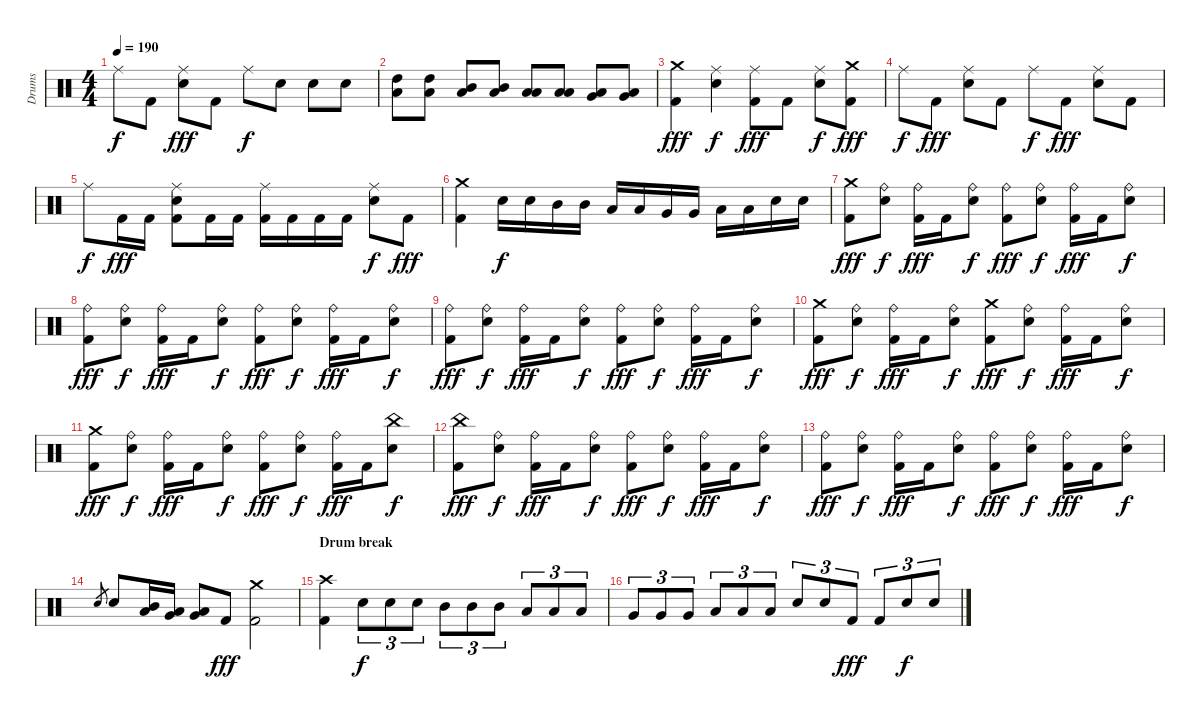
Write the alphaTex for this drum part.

\track ("Drums" "Drums") {instrument percussion}
\staff {score}
\articulation defaults
\ts (4 4)
\tempo 190
\clef neutral
\ks c "Ride (middle)".8{dy f} "Kick (hit) 2".8
("Ride (middle)" "Snare (hit) 2").8{dy fff} "Kick (hit) 2".8 "Ride (middle)".8{dy f} "Snare (hit) 2".8 "Snare (hit) 2".8 "Snare (hit) 2".8 |
("High Tom (hit)" "Low Floor Tom (hit)").8 ("High Tom (hit)" "Low Floor Tom (hit)").8 ("Mid Tom (hit)" "Low Floor Tom (hit)").8 ("Mid Tom (hit)" "Low Floor Tom (hit)").8 ("Low Tom (hit)" "Low Floor Tom (hit)").8 ("Low Tom (hit)" "Low Floor Tom (hit)").8 ("Very Low Tom (hit)" "Low Floor Tom (hit)").8 ("Very Low Tom (hit)" "Low Floor Tom (hit)").8 |
("Crash medium (hit)" "Kick (hit) 2").4{dy fff} ("Ride (middle)" "Snare (hit) 2").4{dy f} ("Ride (middle)" "Kick (hit) 2").8{dy fff} "Kick (hit) 2".8 ("Ride (middle)" "Snare (hit) 2").8{dy f} ("Crash medium (hit)" "Kick (hit) 2").8{dy fff} |
"Ride (middle)".8{dy f} "Kick (hit) 2".8{dy fff} ("Ride (middle)" "Snare (hit) 2").8 "Kick (hit) 2".8 "Ride (middle)".8{dy f} "Kick (hit) 2".8{dy fff} ("Ride (middle)" "Snare (hit) 2").8 "Kick (hit) 2".8 |
"Ride (middle)".8{dy f} "Kick (hit) 2".16{dy fff} "Kick (hit) 2".16 ("Ride (middle)" "Snare (hit) 2" "Kick (hit) 2").8 "Kick (hit) 2".16 "Kick (hit) 2".16 ("Ride (middle)" "Kick (hit) 2").16 "Kick (hit) 2".16 "Kick (hit) 2".16 "Kick (hit) 2".16 ("Ride (middle)" "Snare (hit) 2").8{dy f} "Kick (hit) 2".8{dy fff} |
("Crash medium (hit)" "Kick (hit) 2").4 "Snare (hit) 2".16{dy f} "Snare (hit) 2".16 "Mid Tom (hit)".16 "Mid Tom (hit)".16 "Low Tom (hit)".16 "Low Tom (hit)".16 "Very Low Tom (hit)".16 "Very Low Tom (hit)".16 "Low Floor Tom (hit)".16 "Low Floor Tom (hit)".16 "Snare (hit) 2".16 "Snare (hit) 2".16 |
("Crash medium (hit)" "Kick (hit) 2").8{dy fff} ("Ride (bell)" "Snare (hit) 2").8{dy f} ("Ride (bell)" "Kick (hit) 2").16{dy fff} "Kick (hit) 2".16 ("Ride (bell)" "Snare (hit) 2").8{dy f} ("Ride (bell)" "Kick (hit) 2").8{dy fff} ("Ride (bell)" "Snare (hit) 2").8{dy f} ("Ride (bell)" "Kick (hit) 2").16{dy fff} "Kick (hit) 2".16 ("Ride (bell)" "Snare (hit) 2").8{dy f} |
("Ride (bell)" "Kick (hit) 2").8{dy fff} ("Ride (bell)" "Snare (hit) 2").8{dy f} ("Ride (bell)" "Kick (hit) 2").16{dy fff} "Kick (hit) 2".16 ("Ride (bell)" "Snare (hit) 2").8{dy f} ("Ride (bell)" "Kick (hit) 2").8{dy fff} ("Ride (bell)" "Snare (hit) 2").8{dy f} ("Ride (bell)" "Kick (hit) 2").16{dy fff} "Kick (hit) 2".16 ("Ride (bell)" "Snare (hit) 2").8{dy f} |
("Ride (bell)" "Kick (hit) 2").8{dy fff} ("Ride (bell)" "Snare (hit) 2").8{dy f} ("Ride (bell)" "Kick (hit) 2").16{dy fff} "Kick (hit) 2".16 ("Ride (bell)" "Snare (hit) 2").8{dy f} ("Ride (bell)" "Kick (hit) 2").8{dy fff} ("Ride (bell)" "Snare (hit) 2").8{dy f} ("Ride (bell)" "Kick (hit) 2").16{dy fff} "Kick (hit) 2".16 ("Ride (bell)" "Snare (hit) 2").8{dy f} |
("Crash medium (hit)" "Kick (hit) 2").8{dy fff} ("Ride (bell)" "Snare (hit) 2").8{dy f} ("Ride (bell)" "Kick (hit) 2").16{dy fff} "Kick (hit) 2".16 ("Ride (bell)" "Snare (hit) 2").8{dy f} ("Crash medium (hit)" "Kick (hit) 2").8{dy fff} ("Ride (bell)" "Snare (hit) 2").8{dy f} ("Ride (bell)" "Kick (hit) 2").16{dy fff} "Kick (hit) 2".16 ("Ride (bell)" "Snare (hit) 2").8{dy f} |
("Crash medium (hit)" "Kick (hit) 2").8{dy fff} ("Ride (bell)" "Snare (hit) 2").8{dy f} ("Ride (bell)" "Kick (hit) 2").16{dy fff} "Kick (hit) 2".16 ("Ride (bell)" "Snare (hit) 2").8{dy f} ("Ride (bell)" "Kick (hit) 2").8{dy fff} ("Ride (bell)" "Snare (hit) 2").8{dy f} ("Ride (bell)" "Kick (hit) 2").16{dy fff} "Kick (hit) 2".16 ("China (hit)" "Snare (hit) 2").8{dy f} |
("China (hit)" "Kick (hit) 2").8{dy fff} ("Ride (bell)" "Snare (hit) 2").8{dy f} ("Ride (bell)" "Kick (hit) 2").16{dy fff} "Kick (hit) 2".16 ("Ride (bell)" "Snare (hit) 2").8{dy f} ("Ride (bell)" "Kick (hit) 2").8{dy fff} ("Ride (bell)" "Snare (hit) 2").8{dy f} ("Ride (bell)" "Kick (hit) 2").16{dy fff} "Kick (hit) 2".16 ("Ride (bell)" "Snare (hit) 2").8{dy f} |
("Ride (bell)" "Kick (hit) 2").8{dy fff} ("Ride (bell)" "Snare (hit) 2").8{dy f} ("Ride (bell)" "Kick (hit) 2").16{dy fff} "Kick (hit) 2".16 ("Ride (bell)" "Snare (hit) 2").8{dy f} ("Ride (bell)" "Kick (hit) 2").8{dy fff} ("Ride (bell)" "Snare (hit) 2").8{dy f} ("Ride (bell)" "Kick (hit) 2").16{dy fff} "Kick (hit) 2".16 ("Ride (bell)" "Snare (hit) 2").8{dy f} |
"Snare (hit) 2".8{gr} "Snare (hit) 2".8 ("Mid Tom (hit)" "Low Tom (hit)").16 ("Low Tom (hit)" "Very Low Tom (hit)").16 ("Low Tom (hit)" "Very Low Tom (hit)").8 "Kick (hit) 2".8{dy fff} ("Crash medium (hit)" "Kick (hit) 2").2 |
\section ("" "Drum break")
("Crash high (hit)" "Kick (hit) 2").4 "Snare (hit) 2".8{tu (3 2) dy f} "Snare (hit) 2".8{tu (3 2)} "Snare (hit) 2".8{tu (3 2)} "Mid Tom (hit)".8{tu (3 2)} "Mid Tom (hit)".8{tu (3 2)} "Mid Tom (hit)".8{tu (3 2)} "Low Tom (hit)".8{tu (3 2)} "Low Tom (hit)".8{tu (3 2)} "Low Tom (hit)".8{tu (3 2)} |
"Very Low Tom (hit)".8{tu (3 2)} "Very Low Tom (hit)".8{tu (3 2)} "Very Low Tom (hit)".8{tu (3 2)} "Low Floor Tom (hit)".8{tu (3 2)} "Low Floor Tom (hit)".8{tu (3 2)} "Low Floor Tom (hit)".8{tu (3 2)} "Snare (hit) 2".8{tu (3 2)} "Snare (hit) 2".8{tu (3 2)} "Kick (hit) 2".8{tu (3 2) dy fff} "Kick (hit) 2".8{tu (3 2)} "Snare (hit) 2".8{tu (3 2) dy f} "Snare (hit) 2".8{tu (3 2)}
